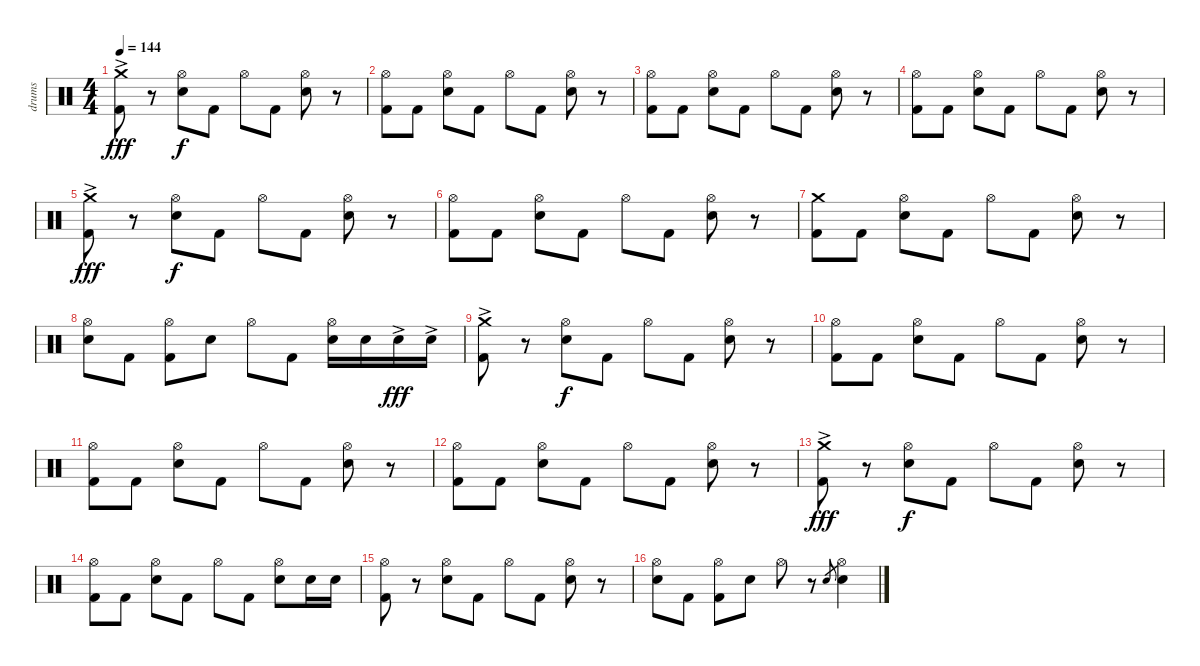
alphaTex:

\track ("drums" "drums") {instrument percussion}
\staff {score}
\articulation defaults
\ts (4 4)
\tempo 144
\clef neutral
\ks c
("Crash medium (hit)"{ac} "Kick (hit) 2").8{dy fff} r.8 ("Hi-Hat (open)" "Snare (hit) 2").8{dy f} "Kick (hit) 2".8 "Hi-Hat (open)".8 "Kick (hit) 2".8 ("Hi-Hat (open)" "Snare (hit) 2").8 r.8 |
("Hi-Hat (open)" "Kick (hit) 2").8 "Kick (hit) 2".8 ("Hi-Hat (open)" "Snare (hit) 2").8 "Kick (hit) 2".8 "Hi-Hat (open)".8 "Kick (hit) 2".8 ("Hi-Hat (open)" "Snare (hit) 2").8 r.8 |
("Hi-Hat (open)" "Kick (hit) 2").8 "Kick (hit) 2".8 ("Hi-Hat (open)" "Snare (hit) 2").8 "Kick (hit) 2".8 "Hi-Hat (open)".8 "Kick (hit) 2".8 ("Hi-Hat (open)" "Snare (hit) 2").8 r.8 |
("Hi-Hat (open)" "Kick (hit) 2").8 "Kick (hit) 2".8 ("Hi-Hat (open)" "Snare (hit) 2").8 "Kick (hit) 2".8 "Hi-Hat (open)".8 "Kick (hit) 2".8 ("Hi-Hat (open)" "Snare (hit) 2").8 r.8 |
("Crash medium (hit)"{ac} "Kick (hit) 2").8{dy fff} r.8 ("Hi-Hat (open)" "Snare (hit) 2").8{dy f} "Kick (hit) 2".8 "Hi-Hat (open)".8 "Kick (hit) 2".8 ("Hi-Hat (open)" "Snare (hit) 2").8 r.8 |
("Hi-Hat (open)" "Kick (hit) 2").8 "Kick (hit) 2".8 ("Hi-Hat (open)" "Snare (hit) 2").8 "Kick (hit) 2".8 "Hi-Hat (open)".8 "Kick (hit) 2".8 ("Hi-Hat (open)" "Snare (hit) 2").8 r.8 |
("Crash medium (hit)" "Kick (hit) 2").8 "Kick (hit) 2".8 ("Hi-Hat (open)" "Snare (hit) 2").8 "Kick (hit) 2".8 "Hi-Hat (open)".8 "Kick (hit) 2".8 ("Hi-Hat (open)" "Snare (hit) 2").8 r.8 |
("Hi-Hat (open)" "Snare (hit) 2").8 "Kick (hit) 2".8 ("Hi-Hat (open)" "Kick (hit) 2").8 "Snare (hit) 2".8 "Hi-Hat (open)".8 "Kick (hit) 2".8 ("Hi-Hat (open)" "Snare (hit) 2").16 "Snare (hit) 2".16 "Snare (hit) 2"{ac}.16{dy fff} "Snare (hit) 2"{ac}.16 |
("Crash medium (hit)"{ac} "Kick (hit) 2").8 r.8 ("Hi-Hat (open)" "Snare (hit) 2").8{dy f} "Kick (hit) 2".8 "Hi-Hat (open)".8 "Kick (hit) 2".8 ("Hi-Hat (open)" "Snare (hit) 2").8 r.8 |
("Hi-Hat (open)" "Kick (hit) 2").8 "Kick (hit) 2".8 ("Hi-Hat (open)" "Snare (hit) 2").8 "Kick (hit) 2".8 "Hi-Hat (open)".8 "Kick (hit) 2".8 ("Hi-Hat (open)" "Snare (hit) 2").8 r.8 |
("Hi-Hat (open)" "Kick (hit) 2").8 "Kick (hit) 2".8 ("Hi-Hat (open)" "Snare (hit) 2").8 "Kick (hit) 2".8 "Hi-Hat (open)".8 "Kick (hit) 2".8 ("Hi-Hat (open)" "Snare (hit) 2").8 r.8 |
("Hi-Hat (open)" "Kick (hit) 2").8 "Kick (hit) 2".8 ("Hi-Hat (open)" "Snare (hit) 2").8 "Kick (hit) 2".8 "Hi-Hat (open)".8 "Kick (hit) 2".8 ("Hi-Hat (open)" "Snare (hit) 2").8 r.8 |
("Crash medium (hit)"{ac} "Kick (hit) 2").8{dy fff} r.8 ("Hi-Hat (open)" "Snare (hit) 2").8{dy f} "Kick (hit) 2".8 "Hi-Hat (open)".8 "Kick (hit) 2".8 ("Hi-Hat (open)" "Snare (hit) 2").8 r.8 |
("Hi-Hat (open)" "Kick (hit) 2").8 "Kick (hit) 2".8 ("Hi-Hat (open)" "Snare (hit) 2").8 "Kick (hit) 2".8 "Hi-Hat (open)".8 "Kick (hit) 2".8 ("Hi-Hat (open)" "Snare (hit) 2").8 "Snare (hit) 2".16 "Snare (hit) 2".16 |
("Hi-Hat (open)" "Kick (hit) 2").8 r.8 ("Hi-Hat (open)" "Snare (hit) 2").8 "Kick (hit) 2".8 "Hi-Hat (open)".8 "Kick (hit) 2".8 ("Hi-Hat (open)" "Snare (hit) 2").8 r.8 |
("Hi-Hat (open)" "Snare (hit) 2").8 "Kick (hit) 2".8 ("Hi-Hat (open)" "Kick (hit) 2").8 "Snare (hit) 2".8 "Hi-Hat (open)".8 r.8 "Snare (hit) 2".8{gr} ("Hi-Hat (open)" "Snare (hit) 2").4
